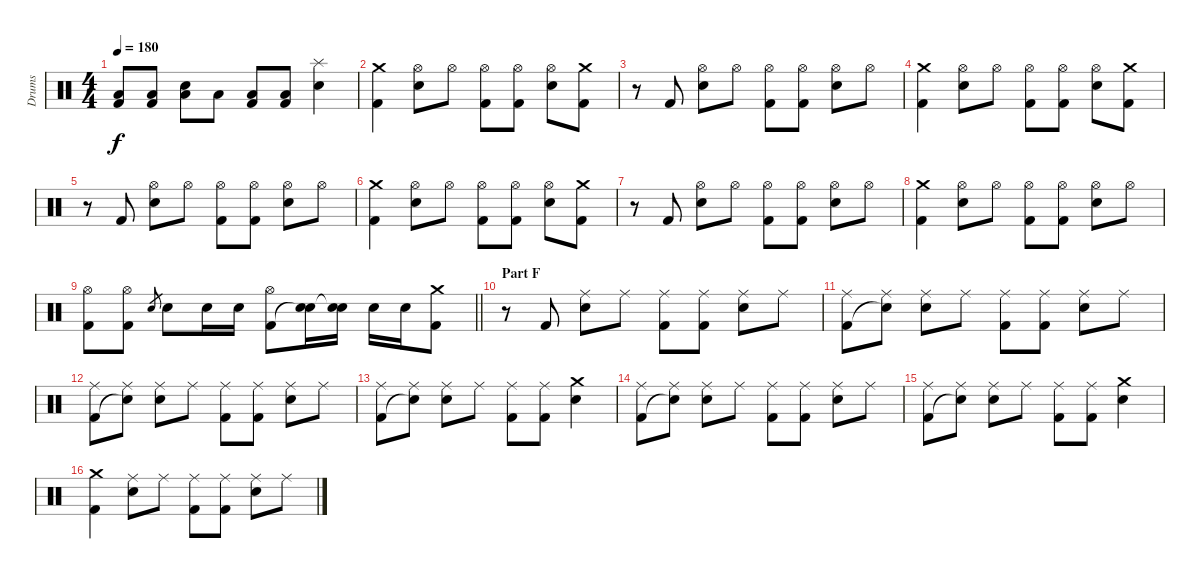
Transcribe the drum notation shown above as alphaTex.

\track ("Drums" "Drums") {instrument percussion}
\staff {score}
\articulation defaults
\ts (4 4)
\tempo 180
\clef neutral
\ks c
("Low Floor Tom (hit)" "Kick (hit) 2").8{dy f} ("Low Floor Tom (hit)" "Kick (hit) 2").8 ("Electric Snare (hit)" "Low Floor Tom (hit)").8 "Low Floor Tom (hit)".8 ("Low Floor Tom (hit)" "Kick (hit) 2").8 ("Low Floor Tom (hit)" "Kick (hit) 2").8 ("Splash (hit)" "Electric Snare (hit)").4 |
("Crash medium (hit)" "Kick (hit) 2").4 ("Hi-Hat (open)" "Electric Snare (hit)").8 "Hi-Hat (open)".8 ("Hi-Hat (open)" "Kick (hit) 2").8 ("Hi-Hat (open)" "Kick (hit) 2").8 ("Hi-Hat (open)" "Electric Snare (hit)").8 ("Crash medium (hit)" "Kick (hit) 2").8 |
r.8 "Kick (hit) 2".8 ("Hi-Hat (open)" "Electric Snare (hit)").8 "Hi-Hat (open)".8 ("Hi-Hat (open)" "Kick (hit) 2").8 ("Hi-Hat (open)" "Kick (hit) 2").8 ("Hi-Hat (open)" "Electric Snare (hit)").8 "Hi-Hat (open)".8 |
("Crash medium (hit)" "Kick (hit) 2").4 ("Hi-Hat (open)" "Electric Snare (hit)").8 "Hi-Hat (open)".8 ("Hi-Hat (open)" "Kick (hit) 2").8 ("Hi-Hat (open)" "Kick (hit) 2").8 ("Hi-Hat (open)" "Electric Snare (hit)").8 ("Crash medium (hit)" "Kick (hit) 2").8 |
r.8 "Kick (hit) 2".8 ("Hi-Hat (open)" "Electric Snare (hit)").8 "Hi-Hat (open)".8 ("Hi-Hat (open)" "Kick (hit) 2").8 ("Hi-Hat (open)" "Kick (hit) 2").8 ("Hi-Hat (open)" "Electric Snare (hit)").8 "Hi-Hat (open)".8 |
("Crash medium (hit)" "Kick (hit) 2").4 ("Hi-Hat (open)" "Electric Snare (hit)").8 "Hi-Hat (open)".8 ("Hi-Hat (open)" "Kick (hit) 2").8 ("Hi-Hat (open)" "Kick (hit) 2").8 ("Hi-Hat (open)" "Electric Snare (hit)").8 ("Crash medium (hit)" "Kick (hit) 2").8 |
r.8 "Kick (hit) 2".8 ("Hi-Hat (open)" "Electric Snare (hit)").8 "Hi-Hat (open)".8 ("Hi-Hat (open)" "Kick (hit) 2").8 ("Hi-Hat (open)" "Kick (hit) 2").8 ("Hi-Hat (open)" "Electric Snare (hit)").8 "Hi-Hat (open)".8 |
("Crash medium (hit)" "Kick (hit) 2").4 ("Hi-Hat (open)" "Electric Snare (hit)").8 "Hi-Hat (open)".8 ("Hi-Hat (open)" "Kick (hit) 2").8 ("Hi-Hat (open)" "Kick (hit) 2").8 ("Hi-Hat (open)" "Electric Snare (hit)").8 "Hi-Hat (open)".8 |
\barLineRight lightlight
("Hi-Hat (open)" "Kick (hit) 2").8 ("Hi-Hat (open)" "Kick (hit) 2").8 "Electric Snare (hit)".8{gr} "Electric Snare (hit)".8 "Electric Snare (hit)".16 "Electric Snare (hit)".16 ("Hi-Hat (open)" "Kick (hit) 2").8 ("Electric Snare (hit)" "Snare (hit)"{t}).16 ("Electric Snare (hit)" "Snare (hit)"{t}).16 "Electric Snare (hit)".16 "Electric Snare (hit)".16 ("Crash medium (hit)" "Kick (hit) 2").8 |
\section ("" "Part F")
r.8 "Kick (hit) 2".8 ("Ride (middle)" "Electric Snare (hit)").8 "Ride (middle)".8 ("Ride (middle)" "Kick (hit) 2").8 ("Ride (middle)" "Kick (hit) 2").8 ("Ride (middle)" "Electric Snare (hit)").8 "Ride (middle)".8 |
("Ride (middle)" "Kick (hit) 2").8 ("Ride (middle)" "Snare (hit)"{t}).8 ("Ride (middle)" "Electric Snare (hit)").8 "Ride (middle)".8 ("Ride (middle)" "Kick (hit) 2").8 ("Ride (middle)" "Kick (hit) 2").8 ("Ride (middle)" "Electric Snare (hit)").8 "Ride (middle)".8 |
("Ride (middle)" "Kick (hit) 2").8 ("Ride (middle)" "Snare (hit)"{t}).8 ("Ride (middle)" "Electric Snare (hit)").8 "Ride (middle)".8 ("Ride (middle)" "Kick (hit) 2").8 ("Ride (middle)" "Kick (hit) 2").8 ("Ride (middle)" "Electric Snare (hit)").8 "Ride (middle)".8 |
("Ride (middle)" "Kick (hit) 2").8 ("Ride (middle)" "Snare (hit)"{t}).8 ("Ride (middle)" "Electric Snare (hit)").8 "Ride (middle)".8 ("Ride (middle)" "Kick (hit) 2").8 ("Ride (middle)" "Kick (hit) 2").8 ("Crash medium (hit)" "Electric Snare (hit)").4 |
("Ride (middle)" "Kick (hit) 2").8 ("Ride (middle)" "Snare (hit)"{t}).8 ("Ride (middle)" "Electric Snare (hit)").8 "Ride (middle)".8 ("Ride (middle)" "Kick (hit) 2").8 ("Ride (middle)" "Kick (hit) 2").8 ("Ride (middle)" "Electric Snare (hit)").8 "Ride (middle)".8 |
("Ride (middle)" "Kick (hit) 2").8 ("Ride (middle)" "Snare (hit)"{t}).8 ("Ride (middle)" "Electric Snare (hit)").8 "Ride (middle)".8 ("Ride (middle)" "Kick (hit) 2").8 ("Ride (middle)" "Kick (hit) 2").8 ("Crash medium (hit)" "Electric Snare (hit)").4 |
("Crash medium (hit)" "Kick (hit) 2").4 ("Ride (middle)" "Electric Snare (hit)").8 "Ride (middle)".8 ("Ride (middle)" "Kick (hit) 2").8 ("Ride (middle)" "Kick (hit) 2").8 ("Ride (middle)" "Electric Snare (hit)").8 "Ride (middle)".8
